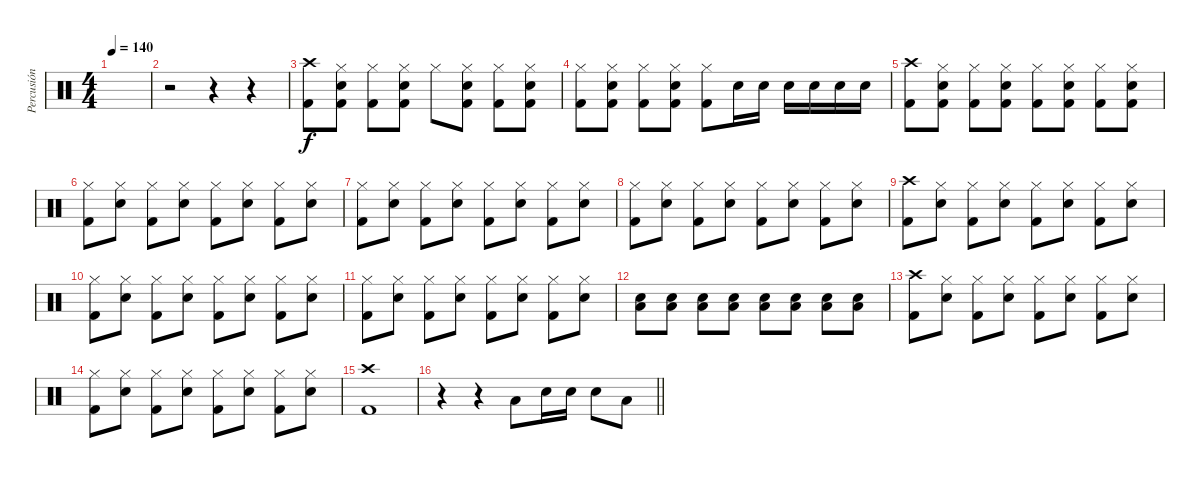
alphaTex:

\track ("Percusión" "Percusión") {instrument percussion}
\staff {score}
\articulation defaults
\ts (4 4)
\tempo 140
\clef neutral
\ks c
|
r.2 r.4 r.4 |
("Crash high (hit)" "Kick (hit) 2").8 ("Hi-Hat (closed)" "Snare (hit) 2" "Kick (hit) 2").8 ("Hi-Hat (closed)" "Kick (hit) 2").8 ("Hi-Hat (closed)" "Snare (hit) 2" "Kick (hit) 2").8 "Hi-Hat (closed)".8 ("Hi-Hat (closed)" "Snare (hit) 2" "Kick (hit) 2").8 ("Hi-Hat (closed)" "Kick (hit) 2").8 ("Hi-Hat (closed)" "Snare (hit) 2" "Kick (hit) 2").8 |
("Hi-Hat (closed)" "Kick (hit) 2").8 ("Hi-Hat (closed)" "Snare (hit) 2" "Kick (hit) 2").8 ("Hi-Hat (closed)" "Kick (hit) 2").8 ("Hi-Hat (closed)" "Snare (hit) 2" "Kick (hit) 2").8 ("Hi-Hat (closed)" "Kick (hit) 2").8 "Snare (hit) 2".16 "Snare (hit) 2".16 "Snare (hit) 2".16 "Snare (hit) 2".16 "Snare (hit) 2".16 "Snare (hit) 2".16 |
("Crash high (hit)" "Kick (hit) 2").8 ("Hi-Hat (closed)" "Snare (hit) 2" "Kick (hit) 2").8 ("Hi-Hat (closed)" "Kick (hit) 2").8 ("Hi-Hat (closed)" "Snare (hit) 2" "Kick (hit) 2").8 ("Hi-Hat (closed)" "Kick (hit) 2").8 ("Hi-Hat (closed)" "Snare (hit) 2" "Kick (hit) 2").8 ("Hi-Hat (closed)" "Kick (hit) 2").8 ("Hi-Hat (closed)" "Snare (hit) 2" "Kick (hit) 2").8 |
("Hi-Hat (closed)" "Kick (hit) 2").8 ("Hi-Hat (closed)" "Snare (hit) 2").8 ("Hi-Hat (closed)" "Kick (hit) 2").8 ("Hi-Hat (closed)" "Snare (hit) 2").8 ("Hi-Hat (closed)" "Kick (hit) 2").8 ("Hi-Hat (closed)" "Snare (hit) 2").8 ("Hi-Hat (closed)" "Kick (hit) 2").8 ("Hi-Hat (closed)" "Snare (hit) 2").8 |
("Hi-Hat (closed)" "Kick (hit) 2").8 ("Hi-Hat (closed)" "Snare (hit) 2").8 ("Hi-Hat (closed)" "Kick (hit) 2").8 ("Hi-Hat (closed)" "Snare (hit) 2").8 ("Hi-Hat (closed)" "Kick (hit) 2").8 ("Hi-Hat (closed)" "Snare (hit) 2").8 ("Hi-Hat (closed)" "Kick (hit) 2").8 ("Hi-Hat (closed)" "Snare (hit) 2").8 |
("Hi-Hat (closed)" "Kick (hit) 2").8 ("Hi-Hat (closed)" "Snare (hit) 2").8 ("Hi-Hat (closed)" "Kick (hit) 2").8 ("Hi-Hat (closed)" "Snare (hit) 2").8 ("Hi-Hat (closed)" "Kick (hit) 2").8 ("Hi-Hat (closed)" "Snare (hit) 2").8 ("Hi-Hat (closed)" "Kick (hit) 2").8 ("Hi-Hat (closed)" "Snare (hit) 2").8 |
("Crash high (hit)" "Kick (hit) 2").8 ("Hi-Hat (closed)" "Snare (hit) 2").8 ("Hi-Hat (closed)" "Kick (hit) 2").8 ("Hi-Hat (closed)" "Snare (hit) 2").8 ("Hi-Hat (closed)" "Kick (hit) 2").8 ("Hi-Hat (closed)" "Snare (hit) 2").8 ("Hi-Hat (closed)" "Kick (hit) 2").8 ("Hi-Hat (closed)" "Snare (hit) 2").8 |
("Hi-Hat (closed)" "Kick (hit) 2").8 ("Hi-Hat (closed)" "Snare (hit) 2").8 ("Hi-Hat (closed)" "Kick (hit) 2").8 ("Hi-Hat (closed)" "Snare (hit) 2").8 ("Hi-Hat (closed)" "Kick (hit) 2").8 ("Hi-Hat (closed)" "Snare (hit) 2").8 ("Hi-Hat (closed)" "Kick (hit) 2").8 ("Hi-Hat (closed)" "Snare (hit) 2").8 |
("Hi-Hat (closed)" "Kick (hit) 2").8 ("Hi-Hat (closed)" "Snare (hit) 2").8 ("Hi-Hat (closed)" "Kick (hit) 2").8 ("Hi-Hat (closed)" "Snare (hit) 2").8 ("Hi-Hat (closed)" "Kick (hit) 2").8 ("Hi-Hat (closed)" "Snare (hit) 2").8 ("Hi-Hat (closed)" "Kick (hit) 2").8 ("Hi-Hat (closed)" "Snare (hit) 2").8 |
("Low Floor Tom (hit)" "Snare (hit) 2").8 ("Low Floor Tom (hit)" "Snare (hit) 2").8 ("Low Floor Tom (hit)" "Snare (hit) 2").8 ("Low Floor Tom (hit)" "Snare (hit) 2").8 ("Low Floor Tom (hit)" "Snare (hit) 2").8 ("Low Floor Tom (hit)" "Snare (hit) 2").8 ("Low Floor Tom (hit)" "Snare (hit) 2").8 ("Low Floor Tom (hit)" "Snare (hit) 2").8 |
("Crash high (hit)" "Kick (hit) 2").8 ("Hi-Hat (closed)" "Snare (hit) 2").8 ("Hi-Hat (closed)" "Kick (hit) 2").8 ("Hi-Hat (closed)" "Snare (hit) 2").8 ("Hi-Hat (closed)" "Kick (hit) 2").8 ("Hi-Hat (closed)" "Snare (hit) 2").8 ("Hi-Hat (closed)" "Kick (hit) 2").8 ("Hi-Hat (closed)" "Snare (hit) 2").8 |
("Hi-Hat (closed)" "Kick (hit) 2").8 ("Hi-Hat (closed)" "Snare (hit) 2").8 ("Hi-Hat (closed)" "Kick (hit) 2").8 ("Hi-Hat (closed)" "Snare (hit) 2").8 ("Hi-Hat (closed)" "Kick (hit) 2").8 ("Hi-Hat (closed)" "Snare (hit) 2").8 ("Hi-Hat (closed)" "Kick (hit) 2").8 ("Hi-Hat (closed)" "Snare (hit) 2").8 |
("Crash high (hit)" "Kick (hit) 2").1 |
\barLineRight lightlight
r.4 r.4 "Low Tom (hit)".8 "Snare (hit) 2".16 "Snare (hit) 2".16 "Snare (hit) 2".8 "Low Tom (hit)".8
